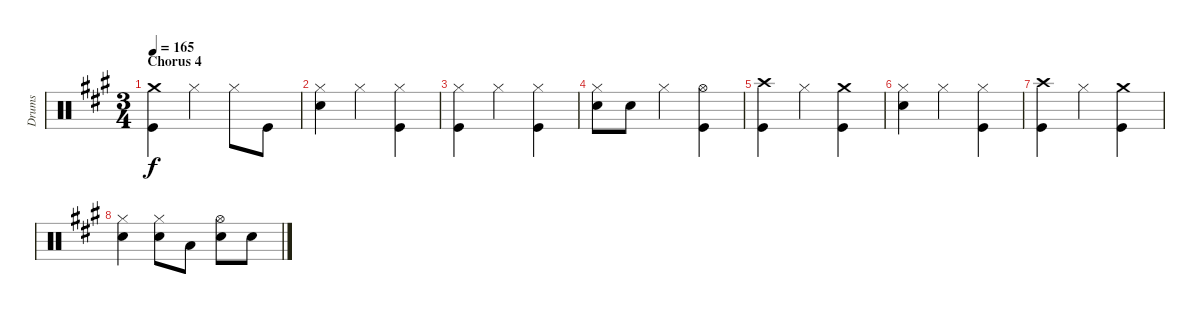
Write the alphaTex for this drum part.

\track ("Drums" "Drums") {instrument percussion}
\staff {score}
\articulation defaults
\ts (3 4)
\section ("" "Chorus 4")
\tempo 165
\clef neutral
\ks a
("Crash medium (hit)" "Kick (hit)").4{dy f} "Hi-Hat (closed)".4 "Hi-Hat (closed)".8 "Kick (hit)".8 |
("Hi-Hat (closed)" "Snare (hit) 2").4 "Hi-Hat (closed)".4 ("Hi-Hat (closed)" "Kick (hit)").4 |
("Hi-Hat (closed)" "Kick (hit)").4 "Hi-Hat (closed)".4 ("Hi-Hat (closed)" "Kick (hit)").4 |
("Hi-Hat (closed)" "Snare (hit) 2").8 "Snare (hit) 2".8 "Hi-Hat (closed)".4 ("Hi-Hat (open)" "Kick (hit)").4 |
("Crash high (hit)" "Kick (hit)").4 "Hi-Hat (closed)".4 ("Crash medium (hit)" "Kick (hit)").4 |
("Hi-Hat (closed)" "Snare (hit) 2").4 "Hi-Hat (closed)".4 ("Hi-Hat (closed)" "Kick (hit)").4 |
("Crash high (hit)" "Kick (hit)").4 "Hi-Hat (closed)".4 ("Crash medium (hit)" "Kick (hit)").4 |
("Hi-Hat (closed)" "Snare (hit) 2").4 ("Hi-Hat (closed)" "Snare (hit) 2").8 "Low Tom (hit)".8 ("Hi-Hat (open)" "Snare (hit) 2").8 "Snare (hit) 2".8
